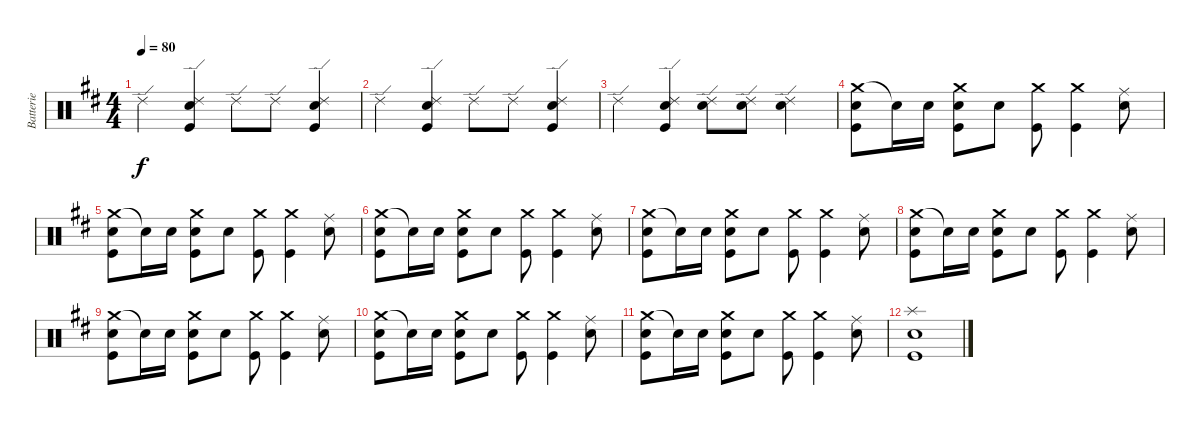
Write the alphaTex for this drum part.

\track ("Batterie" "Batterie") {instrument percussion}
\staff {score}
\articulation defaults
\ts (4 4)
\tempo 80
\clef neutral
\ks d "Ride (edge) 2".4{dy f}
("Ride (edge) 2" "Electric Snare (hit)" "Kick (hit)").4 "Ride (edge) 2".8 "Ride (edge) 2".8 ("Ride (edge) 2" "Electric Snare (hit)" "Kick (hit)").4 |
"Ride (edge) 2".4 ("Ride (edge) 2" "Electric Snare (hit)" "Kick (hit)").4 "Ride (edge) 2".8 "Ride (edge) 2".8 ("Ride (edge) 2" "Electric Snare (hit)" "Kick (hit)").4 |
"Ride (edge) 2".4 ("Ride (edge) 2" "Electric Snare (hit)" "Kick (hit)").4 ("Ride (edge) 2" "Electric Snare (hit)").8 ("Ride (edge) 2" "Electric Snare (hit)").8 ("Ride (edge) 2" "Electric Snare (hit)").4 |
("Crash medium (hit)" "Electric Snare (hit)" "Kick (hit)").8 "Electric Snare (hit)"{t}.16 "Electric Snare (hit)".16 ("Crash medium (hit)" "Electric Snare (hit)" "Kick (hit)").8 "Electric Snare (hit)".8 ("Crash medium (hit)" "Kick (hit)").8 ("Crash medium (hit)" "Kick (hit)").4 ("Ride (middle)" "Electric Snare (hit)").8 |
("Crash medium (hit)" "Electric Snare (hit)" "Kick (hit)").8 "Electric Snare (hit)"{t}.16 "Electric Snare (hit)".16 ("Crash medium (hit)" "Electric Snare (hit)" "Kick (hit)").8 "Electric Snare (hit)".8 ("Crash medium (hit)" "Kick (hit)").8 ("Crash medium (hit)" "Kick (hit)").4 ("Ride (middle)" "Electric Snare (hit)").8 |
("Crash medium (hit)" "Electric Snare (hit)" "Kick (hit)").8 "Electric Snare (hit)"{t}.16 "Electric Snare (hit)".16 ("Crash medium (hit)" "Electric Snare (hit)" "Kick (hit)").8 "Electric Snare (hit)".8 ("Crash medium (hit)" "Kick (hit)").8 ("Crash medium (hit)" "Kick (hit)").4 ("Ride (middle)" "Electric Snare (hit)").8 |
("Crash medium (hit)" "Electric Snare (hit)" "Kick (hit)").8 "Electric Snare (hit)"{t}.16 "Electric Snare (hit)".16 ("Crash medium (hit)" "Electric Snare (hit)" "Kick (hit)").8 "Electric Snare (hit)".8 ("Crash medium (hit)" "Kick (hit)").8 ("Crash medium (hit)" "Kick (hit)").4 ("Ride (middle)" "Electric Snare (hit)").8 |
("Crash medium (hit)" "Electric Snare (hit)" "Kick (hit)").8 "Electric Snare (hit)"{t}.16 "Electric Snare (hit)".16 ("Crash medium (hit)" "Electric Snare (hit)" "Kick (hit)").8 "Electric Snare (hit)".8 ("Crash medium (hit)" "Kick (hit)").8 ("Crash medium (hit)" "Kick (hit)").4 ("Ride (middle)" "Electric Snare (hit)").8 |
("Crash medium (hit)" "Electric Snare (hit)" "Kick (hit)").8 "Electric Snare (hit)"{t}.16 "Electric Snare (hit)".16 ("Crash medium (hit)" "Electric Snare (hit)" "Kick (hit)").8 "Electric Snare (hit)".8 ("Crash medium (hit)" "Kick (hit)").8 ("Crash medium (hit)" "Kick (hit)").4 ("Ride (middle)" "Electric Snare (hit)").8 |
("Crash medium (hit)" "Electric Snare (hit)" "Kick (hit)").8 "Electric Snare (hit)"{t}.16 "Electric Snare (hit)".16 ("Crash medium (hit)" "Electric Snare (hit)" "Kick (hit)").8 "Electric Snare (hit)".8 ("Crash medium (hit)" "Kick (hit)").8 ("Crash medium (hit)" "Kick (hit)").4 ("Ride (middle)" "Electric Snare (hit)").8 |
("Crash medium (hit)" "Electric Snare (hit)" "Kick (hit)").8 "Electric Snare (hit)"{t}.16 "Electric Snare (hit)".16 ("Crash medium (hit)" "Electric Snare (hit)" "Kick (hit)").8 "Electric Snare (hit)".8 ("Crash medium (hit)" "Kick (hit)").8 ("Crash medium (hit)" "Kick (hit)").4 ("Ride (middle)" "Electric Snare (hit)").8 |
("Splash (hit)" "Electric Snare (hit)" "Kick (hit)").1
